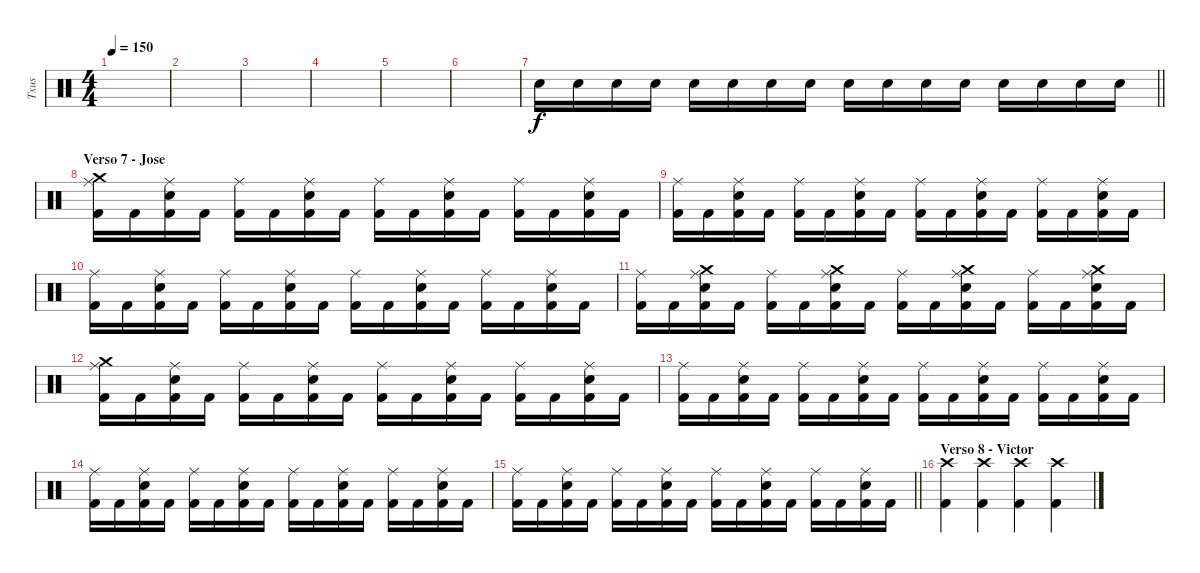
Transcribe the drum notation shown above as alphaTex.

\track ("Txus" "Txus") {instrument percussion}
\staff {score}
\articulation defaults
\ts (4 4)
\tempo 150
\clef neutral
\ks c
|
|
|
|
|
|
\barLineRight lightlight "Electric Snare (hit)".16 "Electric Snare (hit)".16 "Electric Snare (hit)".16 "Electric Snare (hit)".16 "Electric Snare (hit)".16 "Electric Snare (hit)".16 "Electric Snare (hit)".16 "Electric Snare (hit)".16 "Electric Snare (hit)".16 "Electric Snare (hit)".16 "Electric Snare (hit)".16 "Electric Snare (hit)".16 "Electric Snare (hit)".16 "Electric Snare (hit)".16 "Electric Snare (hit)".16 "Electric Snare (hit)".16
|
\section ("" "Verso 7 - Jose")
("Crash medium (hit)" "Ride (middle)" "Kick (hit) 2").16 "Kick (hit) 2".16 ("Ride (middle)" "Electric Snare (hit)" "Kick (hit) 2").16 "Kick (hit) 2".16 ("Ride (middle)" "Kick (hit) 2").16 "Kick (hit) 2".16 ("Ride (middle)" "Electric Snare (hit)" "Kick (hit) 2").16 "Kick (hit) 2".16 ("Ride (middle)" "Kick (hit) 2").16 "Kick (hit) 2".16 ("Ride (middle)" "Electric Snare (hit)" "Kick (hit) 2").16 "Kick (hit) 2".16 ("Ride (middle)" "Kick (hit) 2").16 "Kick (hit) 2".16 ("Ride (middle)" "Electric Snare (hit)" "Kick (hit) 2").16 "Kick (hit) 2".16 |
("Ride (middle)" "Kick (hit) 2").16 "Kick (hit) 2".16 ("Ride (middle)" "Electric Snare (hit)" "Kick (hit) 2").16 "Kick (hit) 2".16 ("Ride (middle)" "Kick (hit) 2").16 "Kick (hit) 2".16 ("Ride (middle)" "Electric Snare (hit)" "Kick (hit) 2").16 "Kick (hit) 2".16 ("Ride (middle)" "Kick (hit) 2").16 "Kick (hit) 2".16 ("Ride (middle)" "Electric Snare (hit)" "Kick (hit) 2").16 "Kick (hit) 2".16 ("Ride (middle)" "Kick (hit) 2").16 "Kick (hit) 2".16 ("Ride (middle)" "Electric Snare (hit)" "Kick (hit) 2").16 "Kick (hit) 2".16 |
("Ride (middle)" "Kick (hit) 2").16 "Kick (hit) 2".16 ("Ride (middle)" "Electric Snare (hit)" "Kick (hit) 2").16 "Kick (hit) 2".16 ("Ride (middle)" "Kick (hit) 2").16 "Kick (hit) 2".16 ("Ride (middle)" "Electric Snare (hit)" "Kick (hit) 2").16 "Kick (hit) 2".16 ("Ride (middle)" "Kick (hit) 2").16 "Kick (hit) 2".16 ("Ride (middle)" "Electric Snare (hit)" "Kick (hit) 2").16 "Kick (hit) 2".16 ("Ride (middle)" "Kick (hit) 2").16 "Kick (hit) 2".16 ("Ride (middle)" "Electric Snare (hit)" "Kick (hit) 2").16 "Kick (hit) 2".16 |
("Ride (middle)" "Kick (hit) 2").16 "Kick (hit) 2".16 ("Crash medium (hit)" "Ride (middle)" "Electric Snare (hit)" "Kick (hit) 2").16 "Kick (hit) 2".16 ("Ride (middle)" "Kick (hit) 2").16 "Kick (hit) 2".16 ("Crash medium (hit)" "Ride (middle)" "Electric Snare (hit)" "Kick (hit) 2").16 "Kick (hit) 2".16 ("Ride (middle)" "Kick (hit) 2").16 "Kick (hit) 2".16 ("Crash medium (hit)" "Ride (middle)" "Electric Snare (hit)" "Kick (hit) 2").16 "Kick (hit) 2".16 ("Ride (middle)" "Kick (hit) 2").16 "Kick (hit) 2".16 ("Crash medium (hit)" "Ride (middle)" "Electric Snare (hit)" "Kick (hit) 2").16 "Kick (hit) 2".16 |
("Crash medium (hit)" "Ride (middle)" "Kick (hit) 2").16 "Kick (hit) 2".16 ("Ride (middle)" "Electric Snare (hit)" "Kick (hit) 2").16 "Kick (hit) 2".16 ("Ride (middle)" "Kick (hit) 2").16 "Kick (hit) 2".16 ("Ride (middle)" "Electric Snare (hit)" "Kick (hit) 2").16 "Kick (hit) 2".16 ("Ride (middle)" "Kick (hit) 2").16 "Kick (hit) 2".16 ("Ride (middle)" "Electric Snare (hit)" "Kick (hit) 2").16 "Kick (hit) 2".16 ("Ride (middle)" "Kick (hit) 2").16 "Kick (hit) 2".16 ("Ride (middle)" "Electric Snare (hit)" "Kick (hit) 2").16 "Kick (hit) 2".16 |
("Ride (middle)" "Kick (hit) 2").16 "Kick (hit) 2".16 ("Ride (middle)" "Electric Snare (hit)" "Kick (hit) 2").16 "Kick (hit) 2".16 ("Ride (middle)" "Kick (hit) 2").16 "Kick (hit) 2".16 ("Ride (middle)" "Electric Snare (hit)" "Kick (hit) 2").16 "Kick (hit) 2".16 ("Ride (middle)" "Kick (hit) 2").16 "Kick (hit) 2".16 ("Ride (middle)" "Electric Snare (hit)" "Kick (hit) 2").16 "Kick (hit) 2".16 ("Ride (middle)" "Kick (hit) 2").16 "Kick (hit) 2".16 ("Ride (middle)" "Electric Snare (hit)" "Kick (hit) 2").16 "Kick (hit) 2".16 |
("Ride (middle)" "Kick (hit) 2").16 "Kick (hit) 2".16 ("Ride (middle)" "Electric Snare (hit)" "Kick (hit) 2").16 "Kick (hit) 2".16 ("Ride (middle)" "Kick (hit) 2").16 "Kick (hit) 2".16 ("Ride (middle)" "Electric Snare (hit)" "Kick (hit) 2").16 "Kick (hit) 2".16 ("Ride (middle)" "Kick (hit) 2").16 "Kick (hit) 2".16 ("Ride (middle)" "Electric Snare (hit)" "Kick (hit) 2").16 "Kick (hit) 2".16 ("Ride (middle)" "Kick (hit) 2").16 "Kick (hit) 2".16 ("Ride (middle)" "Electric Snare (hit)" "Kick (hit) 2").16 "Kick (hit) 2".16 |
\barLineRight lightlight
("Ride (middle)" "Kick (hit) 2").16 "Kick (hit) 2".16 ("Ride (middle)" "Electric Snare (hit)" "Kick (hit) 2").16 "Kick (hit) 2".16 ("Ride (middle)" "Kick (hit) 2").16 "Kick (hit) 2".16 ("Ride (middle)" "Electric Snare (hit)" "Kick (hit) 2").16 "Kick (hit) 2".16 ("Ride (middle)" "Kick (hit) 2").16 "Kick (hit) 2".16 ("Ride (middle)" "Electric Snare (hit)" "Kick (hit) 2").16 "Kick (hit) 2".16 ("Ride (middle)" "Kick (hit) 2").16 "Kick (hit) 2".16 ("Ride (middle)" "Electric Snare (hit)" "Kick (hit) 2").16 "Kick (hit) 2".16 |
\section ("" "Verso 8 - Victor")
("Crash high (hit)" "Kick (hit) 2").4 ("Crash high (hit)" "Kick (hit) 2").4 ("Crash high (hit)" "Kick (hit) 2").4 ("Crash high (hit)" "Kick (hit) 2").4
